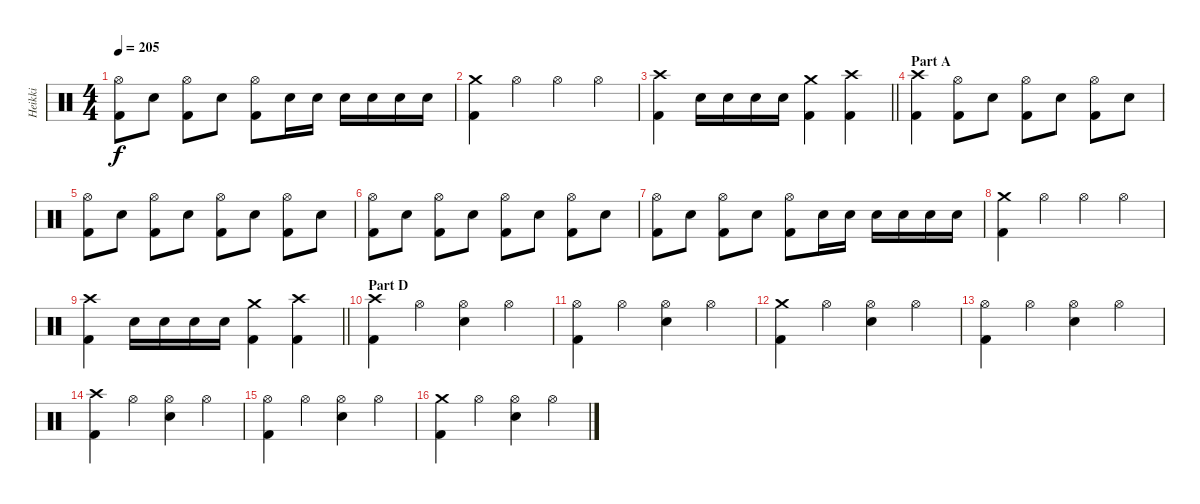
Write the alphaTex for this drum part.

\track ("Heikki" "Heikki") {instrument percussion}
\staff {score}
\articulation defaults
\ts (4 4)
\tempo 205
\clef neutral
\ks c
("Hi-Hat (open)" "Kick (hit) 2").8{dy f} "Electric Snare (hit)".8 ("Hi-Hat (open)" "Kick (hit) 2").8 "Electric Snare (hit)".8 ("Hi-Hat (open)" "Kick (hit) 2").8 "Electric Snare (hit)".16 "Electric Snare (hit)".16 "Electric Snare (hit)".16 "Electric Snare (hit)".16 "Electric Snare (hit)".16 "Electric Snare (hit)".16 |
("Crash medium (hit)" "Kick (hit) 2").4 "Hi-Hat (open)".4 "Hi-Hat (open)".4 "Hi-Hat (open)".4 |
\barLineRight lightlight
("Crash high (hit)" "Kick (hit) 2").4 "Electric Snare (hit)".16 "Electric Snare (hit)".16 "Electric Snare (hit)".16 "Electric Snare (hit)".16 ("Crash medium (hit)" "Kick (hit) 2").4 ("Crash high (hit)" "Kick (hit) 2").4 |
\section ("" "Part A")
("Crash high (hit)" "Kick (hit) 2").4 ("Hi-Hat (open)" "Kick (hit) 2").8 "Electric Snare (hit)".8 ("Hi-Hat (open)" "Kick (hit) 2").8 "Electric Snare (hit)".8 ("Hi-Hat (open)" "Kick (hit) 2").8 "Electric Snare (hit)".8 |
("Hi-Hat (open)" "Kick (hit) 2").8 "Electric Snare (hit)".8 ("Hi-Hat (open)" "Kick (hit) 2").8 "Electric Snare (hit)".8 ("Hi-Hat (open)" "Kick (hit) 2").8 "Electric Snare (hit)".8 ("Hi-Hat (open)" "Kick (hit) 2").8 "Electric Snare (hit)".8 |
("Hi-Hat (open)" "Kick (hit) 2").8 "Electric Snare (hit)".8 ("Hi-Hat (open)" "Kick (hit) 2").8 "Electric Snare (hit)".8 ("Hi-Hat (open)" "Kick (hit) 2").8 "Electric Snare (hit)".8 ("Hi-Hat (open)" "Kick (hit) 2").8 "Electric Snare (hit)".8 |
("Hi-Hat (open)" "Kick (hit) 2").8 "Electric Snare (hit)".8 ("Hi-Hat (open)" "Kick (hit) 2").8 "Electric Snare (hit)".8 ("Hi-Hat (open)" "Kick (hit) 2").8 "Electric Snare (hit)".16 "Electric Snare (hit)".16 "Electric Snare (hit)".16 "Electric Snare (hit)".16 "Electric Snare (hit)".16 "Electric Snare (hit)".16 |
("Crash medium (hit)" "Kick (hit) 2").4 "Hi-Hat (open)".4 "Hi-Hat (open)".4 "Hi-Hat (open)".4 |
\barLineRight lightlight
("Crash high (hit)" "Kick (hit) 2").4 "Electric Snare (hit)".16 "Electric Snare (hit)".16 "Electric Snare (hit)".16 "Electric Snare (hit)".16 ("Crash medium (hit)" "Kick (hit) 2").4 ("Crash high (hit)" "Kick (hit) 2").4 |
\section ("" "Part D")
("Crash high (hit)" "Kick (hit) 2").4 "Hi-Hat (open)".4 ("Hi-Hat (open)" "Electric Snare (hit)").4 "Hi-Hat (open)".4 |
("Hi-Hat (open)" "Kick (hit) 2").4 "Hi-Hat (open)".4 ("Hi-Hat (open)" "Electric Snare (hit)").4 "Hi-Hat (open)".4 |
("Crash medium (hit)" "Kick (hit) 2").4 "Hi-Hat (open)".4 ("Hi-Hat (open)" "Electric Snare (hit)").4 "Hi-Hat (open)".4 |
("Hi-Hat (open)" "Kick (hit) 2").4 "Hi-Hat (open)".4 ("Hi-Hat (open)" "Electric Snare (hit)").4 "Hi-Hat (open)".4 |
("Crash high (hit)" "Kick (hit) 2").4 "Hi-Hat (open)".4 ("Hi-Hat (open)" "Electric Snare (hit)").4 "Hi-Hat (open)".4 |
("Hi-Hat (open)" "Kick (hit) 2").4 "Hi-Hat (open)".4 ("Hi-Hat (open)" "Electric Snare (hit)").4 "Hi-Hat (open)".4 |
("Crash medium (hit)" "Kick (hit) 2").4 "Hi-Hat (open)".4 ("Hi-Hat (open)" "Electric Snare (hit)").4 "Hi-Hat (open)".4
